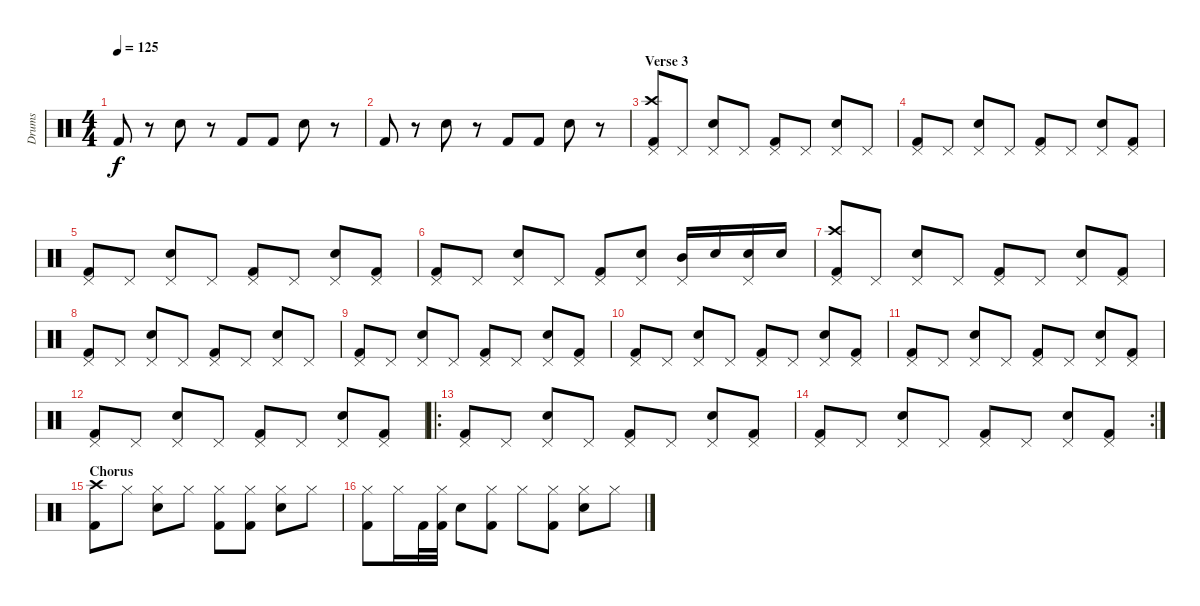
\track ("Drums" "Drums") {instrument percussion}
\staff {score}
\articulation defaults
\ts (4 4)
\tempo 125
\clef neutral
\ks c "Kick (hit) 2".8{dy f}
r.8 "Electric Snare (hit)".8 r.8 "Kick (hit) 2".8 "Kick (hit) 2".8 "Electric Snare (hit)".8 r.8 |
"Kick (hit) 2".8 r.8 "Electric Snare (hit)".8 r.8 "Kick (hit) 2".8 "Kick (hit) 2".8 "Electric Snare (hit)".8 r.8 |
\section ("" "Verse 3")
("Crash high (hit)" "Kick (hit) 2" "Pedal Hi-Hat (hit)").8 "Pedal Hi-Hat (hit)".8 ("Electric Snare (hit)" "Pedal Hi-Hat (hit)").8 "Pedal Hi-Hat (hit)".8 ("Kick (hit) 2" "Pedal Hi-Hat (hit)").8 "Pedal Hi-Hat (hit)".8 ("Electric Snare (hit)" "Pedal Hi-Hat (hit)").8 "Pedal Hi-Hat (hit)".8 |
("Kick (hit) 2" "Pedal Hi-Hat (hit)").8 "Pedal Hi-Hat (hit)".8 ("Electric Snare (hit)" "Pedal Hi-Hat (hit)").8 "Pedal Hi-Hat (hit)".8 ("Kick (hit) 2" "Pedal Hi-Hat (hit)").8 "Pedal Hi-Hat (hit)".8 ("Electric Snare (hit)" "Pedal Hi-Hat (hit)").8 ("Kick (hit) 2" "Pedal Hi-Hat (hit)").8 |
("Kick (hit) 2" "Pedal Hi-Hat (hit)").8 "Pedal Hi-Hat (hit)".8 ("Electric Snare (hit)" "Pedal Hi-Hat (hit)").8 "Pedal Hi-Hat (hit)".8 ("Kick (hit) 2" "Pedal Hi-Hat (hit)").8 "Pedal Hi-Hat (hit)".8 ("Electric Snare (hit)" "Pedal Hi-Hat (hit)").8 ("Kick (hit) 2" "Pedal Hi-Hat (hit)").8 |
("Kick (hit) 2" "Pedal Hi-Hat (hit)").8 "Pedal Hi-Hat (hit)".8 ("Electric Snare (hit)" "Pedal Hi-Hat (hit)").8 "Pedal Hi-Hat (hit)".8 ("Kick (hit) 2" "Pedal Hi-Hat (hit)").8 ("Electric Snare (hit)" "Pedal Hi-Hat (hit)").8 ("Mid Tom (hit)" "Pedal Hi-Hat (hit)").16 "Electric Snare (hit)".16 ("Electric Snare (hit)" "Pedal Hi-Hat (hit)").16 "Electric Snare (hit)".16 |
("Crash high (hit)" "Kick (hit) 2" "Pedal Hi-Hat (hit)").8 "Pedal Hi-Hat (hit)".8 ("Electric Snare (hit)" "Pedal Hi-Hat (hit)").8 "Pedal Hi-Hat (hit)".8 ("Kick (hit) 2" "Pedal Hi-Hat (hit)").8 "Pedal Hi-Hat (hit)".8 ("Electric Snare (hit)" "Pedal Hi-Hat (hit)").8 ("Kick (hit) 2" "Pedal Hi-Hat (hit)").8 |
("Kick (hit) 2" "Pedal Hi-Hat (hit)").8 "Pedal Hi-Hat (hit)".8 ("Electric Snare (hit)" "Pedal Hi-Hat (hit)").8 "Pedal Hi-Hat (hit)".8 ("Kick (hit) 2" "Pedal Hi-Hat (hit)").8 "Pedal Hi-Hat (hit)".8 ("Electric Snare (hit)" "Pedal Hi-Hat (hit)").8 "Pedal Hi-Hat (hit)".8 |
("Kick (hit) 2" "Pedal Hi-Hat (hit)").8 "Pedal Hi-Hat (hit)".8 ("Electric Snare (hit)" "Pedal Hi-Hat (hit)").8 "Pedal Hi-Hat (hit)".8 ("Kick (hit) 2" "Pedal Hi-Hat (hit)").8 "Pedal Hi-Hat (hit)".8 ("Electric Snare (hit)" "Pedal Hi-Hat (hit)").8 ("Kick (hit) 2" "Pedal Hi-Hat (hit)").8 |
("Kick (hit) 2" "Pedal Hi-Hat (hit)").8 "Pedal Hi-Hat (hit)".8 ("Electric Snare (hit)" "Pedal Hi-Hat (hit)").8 "Pedal Hi-Hat (hit)".8 ("Kick (hit) 2" "Pedal Hi-Hat (hit)").8 "Pedal Hi-Hat (hit)".8 ("Electric Snare (hit)" "Pedal Hi-Hat (hit)").8 ("Kick (hit) 2" "Pedal Hi-Hat (hit)").8 |
("Kick (hit) 2" "Pedal Hi-Hat (hit)").8 "Pedal Hi-Hat (hit)".8 ("Electric Snare (hit)" "Pedal Hi-Hat (hit)").8 "Pedal Hi-Hat (hit)".8 ("Kick (hit) 2" "Pedal Hi-Hat (hit)").8 "Pedal Hi-Hat (hit)".8 ("Electric Snare (hit)" "Pedal Hi-Hat (hit)").8 ("Kick (hit) 2" "Pedal Hi-Hat (hit)").8 |
("Kick (hit) 2" "Pedal Hi-Hat (hit)").8 "Pedal Hi-Hat (hit)".8 ("Electric Snare (hit)" "Pedal Hi-Hat (hit)").8 "Pedal Hi-Hat (hit)".8 ("Kick (hit) 2" "Pedal Hi-Hat (hit)").8 "Pedal Hi-Hat (hit)".8 ("Electric Snare (hit)" "Pedal Hi-Hat (hit)").8 ("Kick (hit) 2" "Pedal Hi-Hat (hit)").8 |
\ro
("Kick (hit) 2" "Pedal Hi-Hat (hit)").8 "Pedal Hi-Hat (hit)".8 ("Electric Snare (hit)" "Pedal Hi-Hat (hit)").8 "Pedal Hi-Hat (hit)".8 ("Kick (hit) 2" "Pedal Hi-Hat (hit)").8 "Pedal Hi-Hat (hit)".8 ("Electric Snare (hit)" "Pedal Hi-Hat (hit)").8 ("Kick (hit) 2" "Pedal Hi-Hat (hit)").8 |
\rc 2
("Kick (hit) 2" "Pedal Hi-Hat (hit)").8 "Pedal Hi-Hat (hit)".8 ("Electric Snare (hit)" "Pedal Hi-Hat (hit)").8 "Pedal Hi-Hat (hit)".8 ("Kick (hit) 2" "Pedal Hi-Hat (hit)").8 "Pedal Hi-Hat (hit)".8 ("Electric Snare (hit)" "Pedal Hi-Hat (hit)").8 ("Kick (hit) 2" "Pedal Hi-Hat (hit)").8 |
\section ("" "Chorus")
("Crash high (hit)" "Kick (hit) 2").8 "Hi-Hat (closed)".8 ("Hi-Hat (closed)" "Electric Snare (hit)").8 "Hi-Hat (closed)".8 ("Hi-Hat (closed)" "Kick (hit) 2").8 ("Hi-Hat (closed)" "Kick (hit) 2").8 ("Hi-Hat (closed)" "Electric Snare (hit)").8 "Hi-Hat (closed)".8 |
("Hi-Hat (closed)" "Kick (hit) 2").8 "Hi-Hat (closed)".16 "Kick (hit) 2".32 ("Hi-Hat (closed)" "Kick (hit) 2").32 "Electric Snare (hit)".8 ("Hi-Hat (closed)" "Kick (hit) 2").8 "Hi-Hat (closed)".8 ("Hi-Hat (closed)" "Kick (hit) 2").8 ("Hi-Hat (closed)" "Electric Snare (hit)").8 "Hi-Hat (closed)".8
